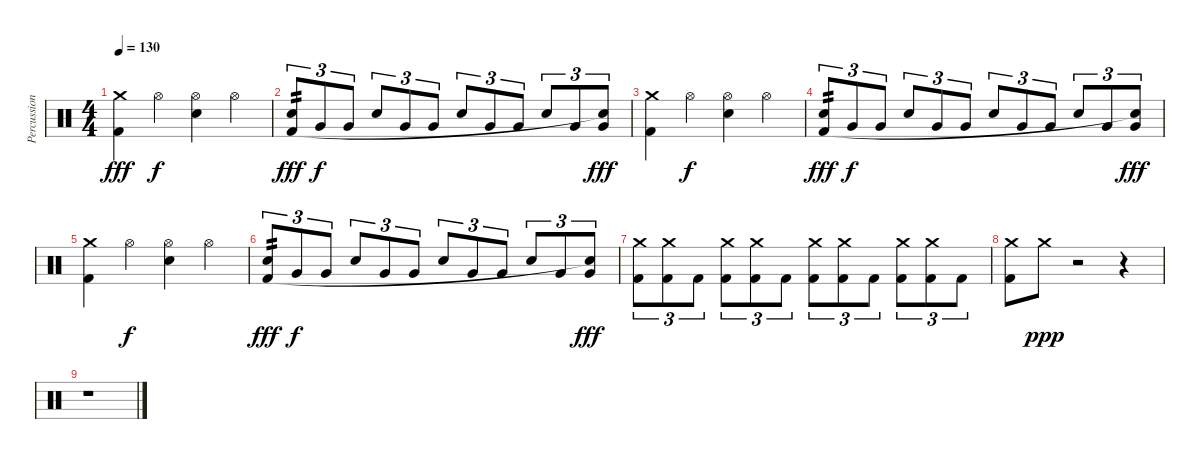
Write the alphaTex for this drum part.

\track ("Percussion" "Percussion") {instrument percussion}
\staff {score}
\articulation defaults
\ts (4 4)
\tempo 130
\clef neutral
\ks c
("Crash medium (hit)" "Kick (hit) 2").4{dy fff} "Hi-Hat (open)".4{dy f} ("Hi-Hat (open)" "Electric Snare (hit)").4 "Hi-Hat (open)".4 |
("Electric Snare (hit)" "Kick (hit) 2").8{tu (3 2) tp 2 dy fff} "Very Low Tom (hit)".8{tu (3 2) dy f} "Very Low Tom (hit)".8{tu (3 2)} "Electric Snare (hit)".8{tu (3 2)} "Very Low Tom (hit)".8{tu (3 2)} "Very Low Tom (hit)".8{tu (3 2)} "Electric Snare (hit)".8{tu (3 2)} "Very Low Tom (hit)".8{tu (3 2)} "Very Low Tom (hit)".8{tu (3 2)} "Electric Snare (hit)".8{tu (3 2)} "Very Low Tom (hit)".8{tu (3 2)} ("Very Low Tom (hit)" "Snare (hit)"{t}).8{tu (3 2) dy fff} |
("Crash medium (hit)" "Kick (hit) 2").4 "Hi-Hat (open)".4{dy f} ("Hi-Hat (open)" "Electric Snare (hit)").4 "Hi-Hat (open)".4 |
("Electric Snare (hit)" "Kick (hit) 2").8{tu (3 2) tp 2 dy fff} "Very Low Tom (hit)".8{tu (3 2) dy f} "Very Low Tom (hit)".8{tu (3 2)} "Electric Snare (hit)".8{tu (3 2)} "Very Low Tom (hit)".8{tu (3 2)} "Very Low Tom (hit)".8{tu (3 2)} "Electric Snare (hit)".8{tu (3 2)} "Very Low Tom (hit)".8{tu (3 2)} "Very Low Tom (hit)".8{tu (3 2)} "Electric Snare (hit)".8{tu (3 2)} "Very Low Tom (hit)".8{tu (3 2)} ("Very Low Tom (hit)" "Snare (hit)"{t}).8{tu (3 2) dy fff} |
("Crash medium (hit)" "Kick (hit) 2").4 "Hi-Hat (open)".4{dy f} ("Hi-Hat (open)" "Electric Snare (hit)").4 "Hi-Hat (open)".4 |
("Electric Snare (hit)" "Kick (hit) 2").8{tu (3 2) tp 2 dy fff} "Very Low Tom (hit)".8{tu (3 2) dy f} "Very Low Tom (hit)".8{tu (3 2)} "Electric Snare (hit)".8{tu (3 2)} "Very Low Tom (hit)".8{tu (3 2)} "Very Low Tom (hit)".8{tu (3 2)} "Electric Snare (hit)".8{tu (3 2)} "Very Low Tom (hit)".8{tu (3 2)} "Very Low Tom (hit)".8{tu (3 2)} "Electric Snare (hit)".8{tu (3 2)} "Very Low Tom (hit)".8{tu (3 2)} ("Very Low Tom (hit)" "Snare (hit)"{t}).8{tu (3 2) dy fff} |
("Crash medium (hit)" "Kick (hit) 2").8{tu (3 2)} ("Crash medium (hit)" "Kick (hit) 2").8{tu (3 2)} "Kick (hit) 2".8{tu (3 2)} ("Crash medium (hit)" "Kick (hit) 2").8{tu (3 2)} ("Crash medium (hit)" "Kick (hit) 2").8{tu (3 2)} "Kick (hit) 2".8{tu (3 2)} ("Crash medium (hit)" "Kick (hit) 2").8{tu (3 2)} ("Crash medium (hit)" "Kick (hit) 2").8{tu (3 2)} "Kick (hit) 2".8{tu (3 2)} ("Crash medium (hit)" "Kick (hit) 2").8{tu (3 2)} ("Crash medium (hit)" "Kick (hit) 2").8{tu (3 2)} "Kick (hit) 2".8{tu (3 2)} |
("Crash medium (hit)" "Kick (hit) 2").8 "Crash medium (hit)".8{dy ppp} r.2 r.4 |
r.1
